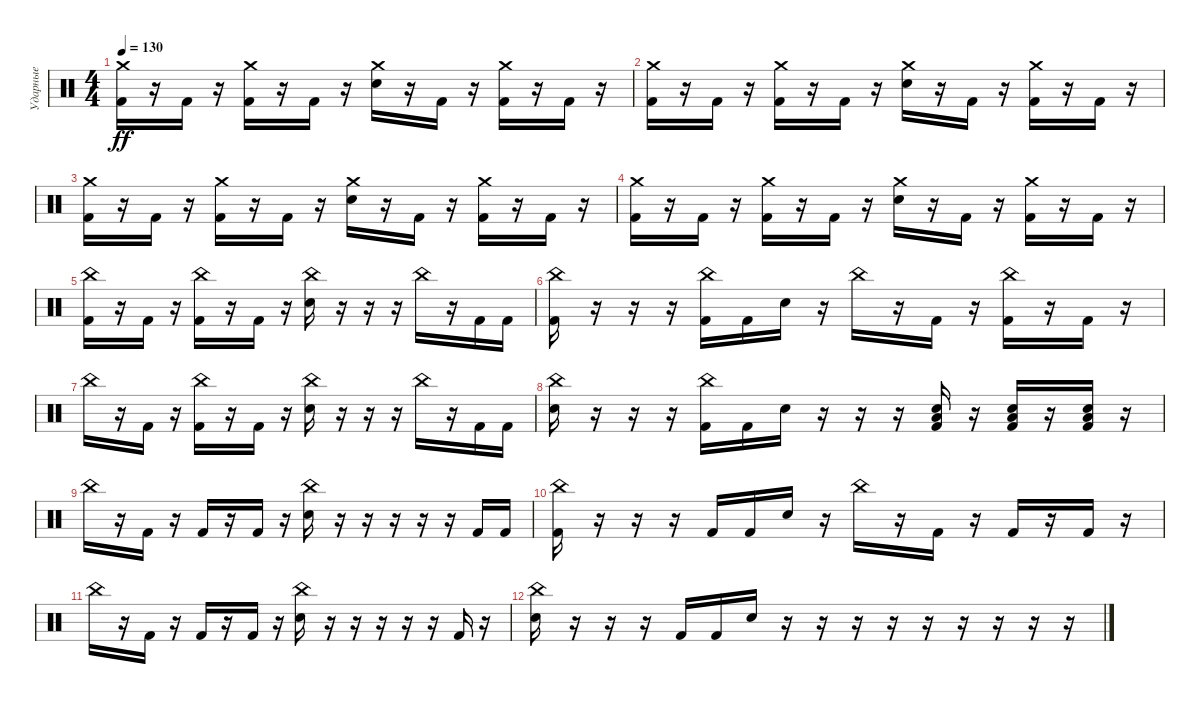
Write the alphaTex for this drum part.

\track ("Ударные" "Ударные") {instrument percussion}
\staff {score}
\articulation defaults
\ts (4 4)
\tempo 130
\clef neutral
\ks c
("Crash medium (hit)" "Kick (hit) 2").16{dy ff} r.16 "Kick (hit) 2".16 r.16 ("Crash medium (hit)" "Kick (hit) 2").16 r.16 "Kick (hit) 2".16 r.16 ("Crash medium (hit)" "Electric Snare (hit)").16 r.16 "Kick (hit) 2".16 r.16 ("Crash medium (hit)" "Kick (hit) 2").16 r.16 "Kick (hit) 2".16 r.16 |
("Crash medium (hit)" "Kick (hit) 2").16 r.16 "Kick (hit) 2".16 r.16 ("Crash medium (hit)" "Kick (hit) 2").16 r.16 "Kick (hit) 2".16 r.16 ("Crash medium (hit)" "Electric Snare (hit)").16 r.16 "Kick (hit) 2".16 r.16 ("Crash medium (hit)" "Kick (hit) 2").16 r.16 "Kick (hit) 2".16 r.16 |
("Crash medium (hit)" "Kick (hit) 2").16 r.16 "Kick (hit) 2".16 r.16 ("Crash medium (hit)" "Kick (hit) 2").16 r.16 "Kick (hit) 2".16 r.16 ("Crash medium (hit)" "Electric Snare (hit)").16 r.16 "Kick (hit) 2".16 r.16 ("Crash medium (hit)" "Kick (hit) 2").16 r.16 "Kick (hit) 2".16 r.16 |
("Crash medium (hit)" "Kick (hit) 2").16 r.16 "Kick (hit) 2".16 r.16 ("Crash medium (hit)" "Kick (hit) 2").16 r.16 "Kick (hit) 2".16 r.16 ("Crash medium (hit)" "Electric Snare (hit)").16 r.16 "Kick (hit) 2".16 r.16 ("Crash medium (hit)" "Kick (hit) 2").16 r.16 "Kick (hit) 2".16 r.16 |
("China (hit)" "Kick (hit) 2").16 r.16 "Kick (hit) 2".16 r.16 ("China (hit)" "Kick (hit) 2").16 r.16 "Kick (hit) 2".16 r.16 ("China (hit)" "Electric Snare (hit)").16 r.16 r.16 r.16 "China (hit)".16 r.16 "Kick (hit) 2".16 "Kick (hit) 2".16 |
("China (hit)" "Kick (hit) 2").16 r.16 r.16 r.16 ("China (hit)" "Kick (hit) 2").16 "Kick (hit) 2".16 "Electric Snare (hit)".16 r.16 "China (hit)".16 r.16 "Kick (hit) 2".16 r.16 ("China (hit)" "Kick (hit) 2").16 r.16 "Kick (hit) 2".16 r.16 |
"China (hit)".16 r.16 "Kick (hit) 2".16 r.16 ("China (hit)" "Kick (hit) 2").16 r.16 "Kick (hit) 2".16 r.16 ("China (hit)" "Electric Snare (hit)").16 r.16 r.16 r.16 "China (hit)".16 r.16 "Kick (hit) 2".16 "Kick (hit) 2".16 |
("China (hit)" "Electric Snare (hit)").16 r.16 r.16 r.16 ("China (hit)" "Kick (hit) 2").16 "Kick (hit) 2".16 "Electric Snare (hit)".16 r.16 r.16 r.16 ("Low Floor Tom (hit)" "Electric Snare (hit)" "Kick (hit) 2").16 r.16 ("Low Floor Tom (hit)" "Electric Snare (hit)" "Kick (hit) 2").16 r.16 ("Low Floor Tom (hit)" "Electric Snare (hit)" "Kick (hit) 2").16 r.16 |
"China (hit)".16 r.16 "Kick (hit) 2".16 r.16 "Kick (hit) 2".16 r.16 "Kick (hit) 2".16 r.16 ("China (hit)" "Electric Snare (hit)").16 r.16 r.16 r.16 r.16 r.16 "Kick (hit) 2".16 "Kick (hit) 2".16 |
("China (hit)" "Kick (hit) 2").16 r.16 r.16 r.16 "Kick (hit) 2".16 "Kick (hit) 2".16 "Electric Snare (hit)".16 r.16 "China (hit)".16 r.16 "Kick (hit) 2".16 r.16 "Kick (hit) 2".16 r.16 "Kick (hit) 2".16 r.16 |
"China (hit)".16 r.16 "Kick (hit) 2".16 r.16 "Kick (hit) 2".16 r.16 "Kick (hit) 2".16 r.16 ("China (hit)" "Electric Snare (hit)").16 r.16 r.16 r.16 r.16 r.16 "Kick (hit) 2".16 r.16 |
("China (hit)" "Electric Snare (hit)").16 r.16 r.16 r.16 "Kick (hit) 2".16 "Kick (hit) 2".16 "Electric Snare (hit)".16 r.16 r.16 r.16 r.16 r.16 r.16 r.16 r.16 r.16
